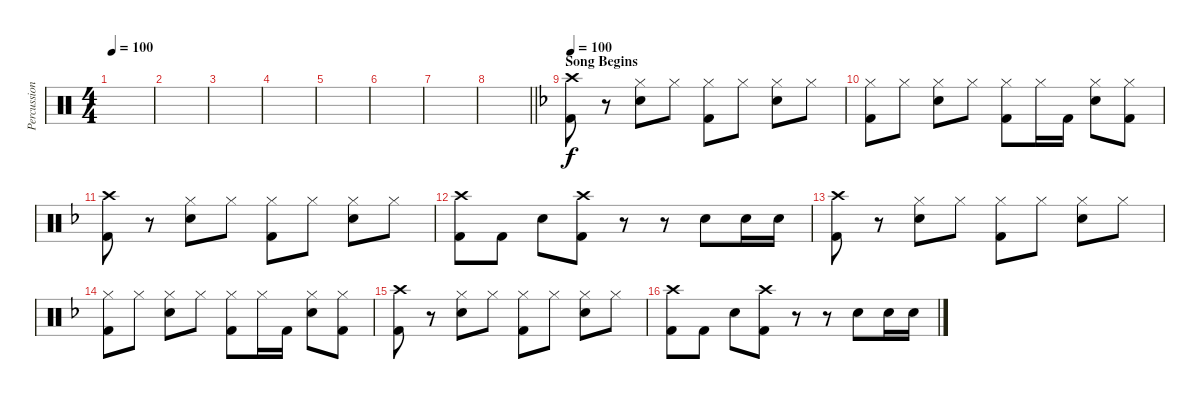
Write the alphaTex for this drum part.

\track ("Percussion" "Percussion") {instrument percussion}
\staff {score}
\articulation defaults
\ts (4 4)
\tempo 100
\clef neutral
\ks c
|
|
|
|
|
|
|
\barLineRight lightlight
|
\section ("" "Song Begins")
\tempo 100
\ks dminor
("Crash high (hit)" "Kick (hit) 2").8 r.8 ("Hi-Hat (closed)" "Snare (hit) 2").8 "Hi-Hat (closed)".8 ("Hi-Hat (closed)" "Kick (hit) 2").8 "Hi-Hat (closed)".8 ("Hi-Hat (closed)" "Snare (hit) 2").8 "Hi-Hat (closed)".8 |
("Hi-Hat (closed)" "Kick (hit) 2").8 "Hi-Hat (closed)".8 ("Hi-Hat (closed)" "Snare (hit) 2").8 "Hi-Hat (closed)".8 ("Hi-Hat (closed)" "Kick (hit) 2").8 "Hi-Hat (closed)".16 "Kick (hit) 2".16 ("Hi-Hat (closed)" "Snare (hit) 2").8 ("Hi-Hat (closed)" "Kick (hit) 2").8 |
("Crash high (hit)" "Kick (hit) 2").8 r.8 ("Hi-Hat (closed)" "Snare (hit) 2").8 "Hi-Hat (closed)".8 ("Hi-Hat (closed)" "Kick (hit) 2").8 "Hi-Hat (closed)".8 ("Hi-Hat (closed)" "Snare (hit) 2").8 "Hi-Hat (closed)".8 |
("Crash high (hit)" "Kick (hit) 2").8 "Kick (hit) 2".8 "Snare (hit) 2".8 ("Crash high (hit)" "Kick (hit) 2").8 r.8 r.8 "Snare (hit) 2".8 "Snare (hit) 2".16 "Snare (hit) 2".16 |
("Crash high (hit)" "Kick (hit) 2").8 r.8 ("Hi-Hat (closed)" "Snare (hit) 2").8 "Hi-Hat (closed)".8 ("Hi-Hat (closed)" "Kick (hit) 2").8 "Hi-Hat (closed)".8 ("Hi-Hat (closed)" "Snare (hit) 2").8 "Hi-Hat (closed)".8 |
("Hi-Hat (closed)" "Kick (hit) 2").8 "Hi-Hat (closed)".8 ("Hi-Hat (closed)" "Snare (hit) 2").8 "Hi-Hat (closed)".8 ("Hi-Hat (closed)" "Kick (hit) 2").8 "Hi-Hat (closed)".16 "Kick (hit) 2".16 ("Hi-Hat (closed)" "Snare (hit) 2").8 ("Hi-Hat (closed)" "Kick (hit) 2").8 |
("Crash high (hit)" "Kick (hit) 2").8 r.8 ("Hi-Hat (closed)" "Snare (hit) 2").8 "Hi-Hat (closed)".8 ("Hi-Hat (closed)" "Kick (hit) 2").8 "Hi-Hat (closed)".8 ("Hi-Hat (closed)" "Snare (hit) 2").8 "Hi-Hat (closed)".8 |
("Crash high (hit)" "Kick (hit) 2").8 "Kick (hit) 2".8 "Snare (hit) 2".8 ("Crash high (hit)" "Kick (hit) 2").8 r.8 r.8 "Snare (hit) 2".8 "Snare (hit) 2".16 "Snare (hit) 2".16
